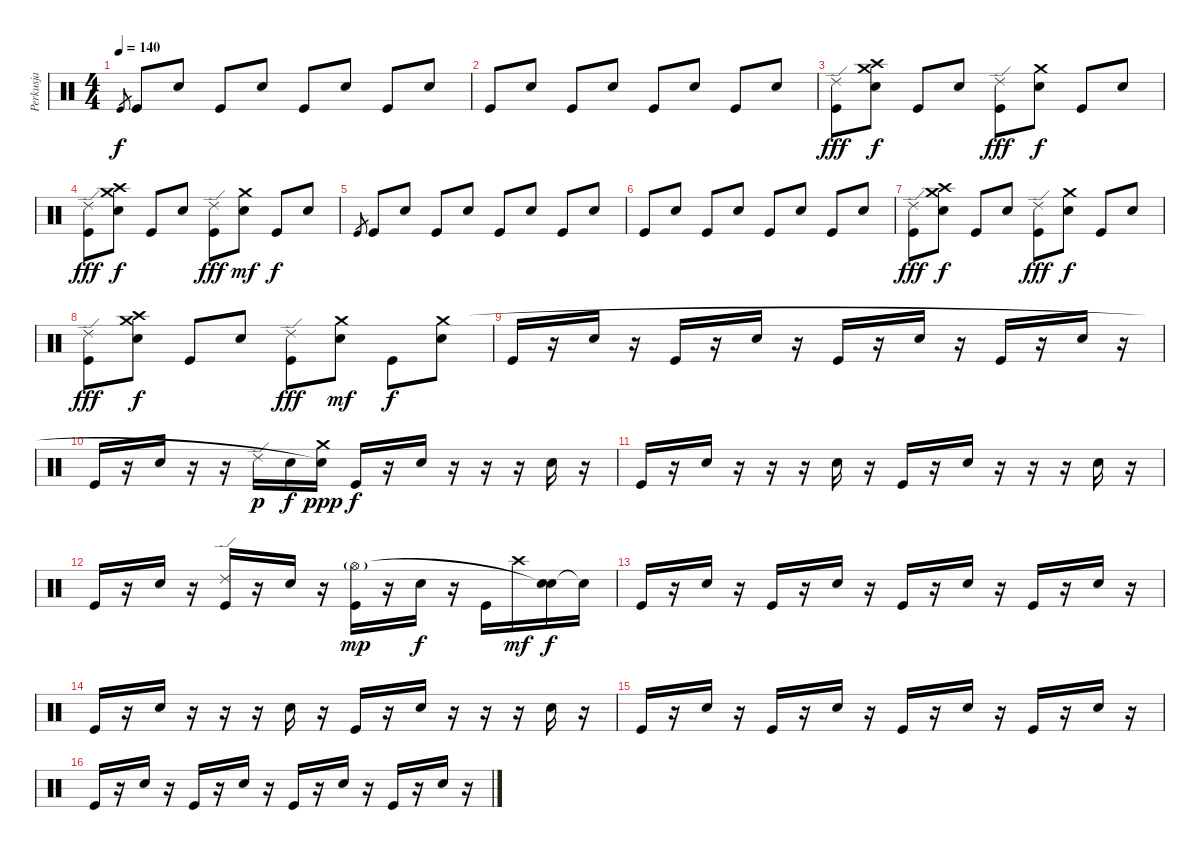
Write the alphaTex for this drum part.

\track ("Perkusja" "Perkusja") {instrument percussion}
\staff {score}
\articulation defaults
\ts (4 4)
\tempo 140
\clef neutral
\ks c "Kick (hit)".8{gr dy f} "Kick (hit)".8 "Snare (hit) 2".8 "Kick (hit)".8 "Snare (hit) 2".8 "Kick (hit)".8 "Snare (hit) 2".8 "Kick (hit)".8 "Snare (hit) 2".8
|
"Kick (hit)".8 "Snare (hit) 2".8 "Kick (hit)".8 "Snare (hit) 2".8 "Kick (hit)".8 "Snare (hit) 2".8 "Kick (hit)".8 "Snare (hit) 2".8 |
("Kick (hit)" "Ride (edge) 2").8{dy fff} ("Snare (hit) 2" "Crash medium (hit)" "Crash high (hit)").8{dy f} "Kick (hit)".8 "Snare (hit) 2".8 ("Kick (hit)" "Ride (edge) 2").8{dy fff} ("Snare (hit) 2" "Crash medium (hit)").8{dy f} "Kick (hit)".8 "Snare (hit) 2".8 |
("Kick (hit)" "Ride (edge) 2").8{dy fff} ("Snare (hit) 2" "Crash medium (hit)" "Crash high (hit)").8{dy f} "Kick (hit)".8 "Snare (hit) 2".8 ("Kick (hit)" "Ride (edge) 2").8{dy fff} ("Snare (hit) 2" "Crash medium (hit)").8{dy mf} "Kick (hit)".8{dy f} "Snare (hit) 2".8 |
"Kick (hit)".8{gr} "Kick (hit)".8 "Snare (hit) 2".8 "Kick (hit)".8 "Snare (hit) 2".8 "Kick (hit)".8 "Snare (hit) 2".8 "Kick (hit)".8 "Snare (hit) 2".8 |
"Kick (hit)".8 "Snare (hit) 2".8 "Kick (hit)".8 "Snare (hit) 2".8 "Kick (hit)".8 "Snare (hit) 2".8 "Kick (hit)".8 "Snare (hit) 2".8 |
("Kick (hit)" "Ride (edge) 2").8{dy fff} ("Snare (hit) 2" "Crash medium (hit)" "Crash high (hit)").8{dy f} "Kick (hit)".8 "Snare (hit) 2".8 ("Kick (hit)" "Ride (edge) 2").8{dy fff} ("Snare (hit) 2" "Crash medium (hit)").8{dy f} "Kick (hit)".8 "Snare (hit) 2".8 |
("Kick (hit)" "Ride (edge) 2").8{dy fff} ("Snare (hit) 2" "Crash medium (hit)" "Crash high (hit)").8{dy f} "Kick (hit)".8 "Snare (hit) 2".8 ("Kick (hit)" "Ride (edge) 2").8{dy fff} ("Snare (hit) 2" "Crash medium (hit)").8{dy mf} "Kick (hit)".8{dy f} ("Snare (hit) 2" "Crash medium (hit)").8 |
"Kick (hit)".16 r.16 "Snare (hit) 2".16 r.16 "Kick (hit)".16 r.16 "Snare (hit) 2".16 r.16 "Kick (hit)".16 r.16 "Snare (hit) 2".16 r.16 "Kick (hit)".16 r.16 "Snare (hit) 2".16 r.16 |
"Kick (hit)".16 r.16 "Snare (hit) 2".16 r.16 r.16 "Ride (edge) 2".16{dy p} "Snare (hit) 2".16{dy f} ("Crash medium (hit)" "Snare (hit)"{t}).16{dy ppp} "Kick (hit)".16{dy f} r.16 "Snare (hit) 2".16 r.16 r.16 r.16 "Snare (hit) 2".16 r.16 |
"Kick (hit)".16 r.16 "Snare (hit) 2".16 r.16 r.16 r.16 "Snare (hit) 2".16 r.16 "Kick (hit)".16 r.16 "Snare (hit) 2".16 r.16 r.16 r.16 "Snare (hit) 2".16 r.16 |
"Kick (hit)".16 r.16 "Snare (hit) 2".16 r.16 ("Kick (hit)" "Ride (edge) 2").16 r.16 "Snare (hit) 2".16 r.16 ("Kick (hit)" "Hi-Hat (open)"{g}).16{dy mp} r.16 "Snare (hit) 2".16{dy f} r.16 "Kick (hit)".16 "Crash high (hit)".16{dy mf} ("Snare (hit) 2" "Snare (hit)"{t}).16{dy f} "Snare (hit)"{t}.16 |
"Kick (hit)".16 r.16 "Snare (hit) 2".16 r.16 "Kick (hit)".16 r.16 "Snare (hit) 2".16 r.16 "Kick (hit)".16 r.16 "Snare (hit) 2".16 r.16 "Kick (hit)".16 r.16 "Snare (hit) 2".16 r.16 |
"Kick (hit)".16 r.16 "Snare (hit) 2".16 r.16 r.16 r.16 "Snare (hit) 2".16 r.16 "Kick (hit)".16 r.16 "Snare (hit) 2".16 r.16 r.16 r.16 "Snare (hit) 2".16 r.16 |
"Kick (hit)".16 r.16 "Snare (hit) 2".16 r.16 "Kick (hit)".16 r.16 "Snare (hit) 2".16 r.16 "Kick (hit)".16 r.16 "Snare (hit) 2".16 r.16 "Kick (hit)".16 r.16 "Snare (hit) 2".16 r.16 |
"Kick (hit)".16 r.16 "Snare (hit) 2".16 r.16 "Kick (hit)".16 r.16 "Snare (hit) 2".16 r.16 "Kick (hit)".16 r.16 "Snare (hit) 2".16 r.16 "Kick (hit)".16 r.16 "Snare (hit) 2".16 r.16
